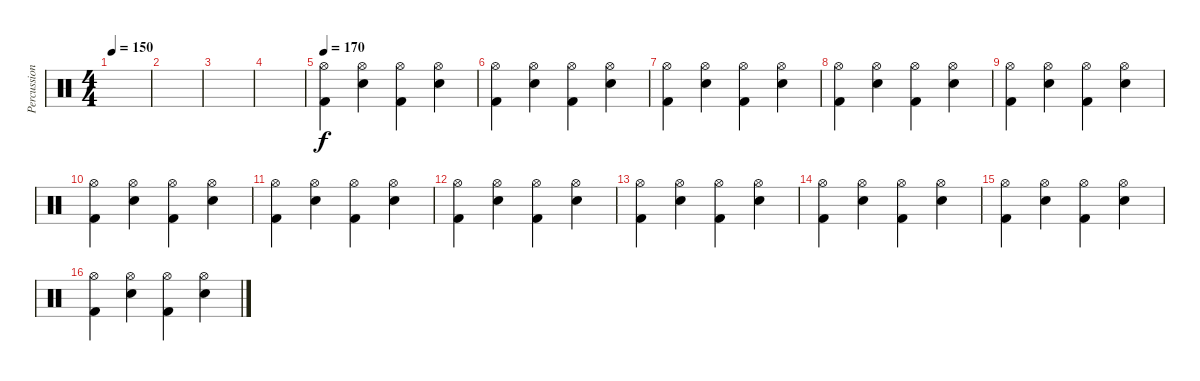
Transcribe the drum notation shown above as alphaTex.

\track ("Percussion" "Percussion") {instrument percussion}
\staff {score}
\articulation defaults
\ts (4 4)
\tempo 150
\clef neutral
\ks c
|
|
|
|
\tempo 170
("Hi-Hat (open)" "Kick (hit) 2").4 ("Hi-Hat (open)" "Electric Snare (hit)").4 ("Hi-Hat (open)" "Kick (hit) 2").4 ("Hi-Hat (open)" "Electric Snare (hit)").4 |
("Hi-Hat (open)" "Kick (hit) 2").4 ("Hi-Hat (open)" "Electric Snare (hit)").4 ("Hi-Hat (open)" "Kick (hit) 2").4 ("Hi-Hat (open)" "Electric Snare (hit)").4 |
("Hi-Hat (open)" "Kick (hit) 2").4 ("Hi-Hat (open)" "Electric Snare (hit)").4 ("Hi-Hat (open)" "Kick (hit) 2").4 ("Hi-Hat (open)" "Electric Snare (hit)").4 |
("Hi-Hat (open)" "Kick (hit) 2").4 ("Hi-Hat (open)" "Electric Snare (hit)").4 ("Hi-Hat (open)" "Kick (hit) 2").4 ("Hi-Hat (open)" "Electric Snare (hit)").4 |
("Hi-Hat (open)" "Kick (hit) 2").4 ("Hi-Hat (open)" "Electric Snare (hit)").4 ("Hi-Hat (open)" "Kick (hit) 2").4 ("Hi-Hat (open)" "Electric Snare (hit)").4 |
("Hi-Hat (open)" "Kick (hit) 2").4 ("Hi-Hat (open)" "Electric Snare (hit)").4 ("Hi-Hat (open)" "Kick (hit) 2").4 ("Hi-Hat (open)" "Electric Snare (hit)").4 |
("Hi-Hat (open)" "Kick (hit) 2").4 ("Hi-Hat (open)" "Electric Snare (hit)").4 ("Hi-Hat (open)" "Kick (hit) 2").4 ("Hi-Hat (open)" "Electric Snare (hit)").4 |
("Hi-Hat (open)" "Kick (hit) 2").4 ("Hi-Hat (open)" "Electric Snare (hit)").4 ("Hi-Hat (open)" "Kick (hit) 2").4 ("Hi-Hat (open)" "Electric Snare (hit)").4 |
("Hi-Hat (open)" "Kick (hit) 2").4 ("Hi-Hat (open)" "Electric Snare (hit)").4 ("Hi-Hat (open)" "Kick (hit) 2").4 ("Hi-Hat (open)" "Electric Snare (hit)").4 |
("Hi-Hat (open)" "Kick (hit) 2").4 ("Hi-Hat (open)" "Electric Snare (hit)").4 ("Hi-Hat (open)" "Kick (hit) 2").4 ("Hi-Hat (open)" "Electric Snare (hit)").4 |
("Hi-Hat (open)" "Kick (hit) 2").4 ("Hi-Hat (open)" "Electric Snare (hit)").4 ("Hi-Hat (open)" "Kick (hit) 2").4 ("Hi-Hat (open)" "Electric Snare (hit)").4 |
("Hi-Hat (open)" "Kick (hit) 2").4 ("Hi-Hat (open)" "Electric Snare (hit)").4 ("Hi-Hat (open)" "Kick (hit) 2").4 ("Hi-Hat (open)" "Electric Snare (hit)").4
